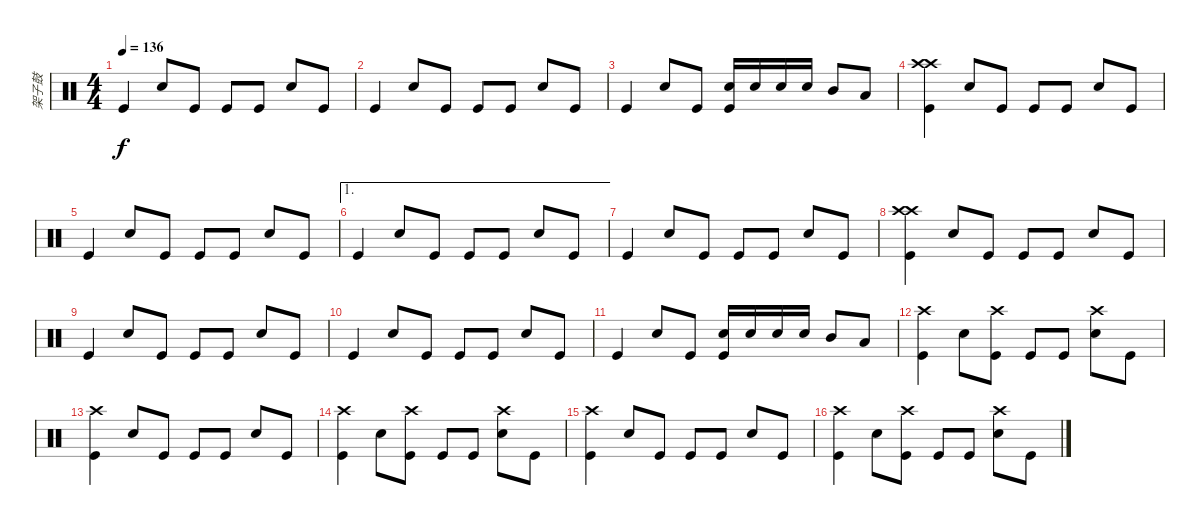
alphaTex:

\track ("架子鼓" "架子鼓") {instrument percussion}
\staff {score}
\articulation defaults
\ts (4 4)
\tempo 136
\clef neutral
\ks c "Kick (hit)".4{dy f} "Snare (hit) 2".8 "Kick (hit)".8 "Kick (hit)".8 "Kick (hit)".8 "Snare (hit) 2".8 "Kick (hit)".8
|
"Kick (hit)".4 "Snare (hit) 2".8 "Kick (hit)".8 "Kick (hit)".8 "Kick (hit)".8 "Snare (hit) 2".8 "Kick (hit)".8 |
"Kick (hit)".4 "Snare (hit) 2".8 "Kick (hit)".8 ("Snare (hit) 2" "Kick (hit)").16 "Snare (hit) 2".16 "Snare (hit) 2".16 "Snare (hit) 2".16 "Mid Tom (hit)".8 "Low Tom (hit)".8 |
("Crash high (hit)" "Crash high (hit)" "Kick (hit)").4 "Snare (hit) 2".8 "Kick (hit)".8 "Kick (hit)".8 "Kick (hit)".8 "Snare (hit) 2".8 "Kick (hit)".8 |
"Kick (hit)".4 "Snare (hit) 2".8 "Kick (hit)".8 "Kick (hit)".8 "Kick (hit)".8 "Snare (hit) 2".8 "Kick (hit)".8 |
\ae 1 "Kick (hit)".4 "Snare (hit) 2".8 "Kick (hit)".8 "Kick (hit)".8 "Kick (hit)".8 "Snare (hit) 2".8 "Kick (hit)".8
|
"Kick (hit)".4 "Snare (hit) 2".8 "Kick (hit)".8 "Kick (hit)".8 "Kick (hit)".8 "Snare (hit) 2".8 "Kick (hit)".8 |
("Crash high (hit)" "Crash high (hit)" "Kick (hit)").4 "Snare (hit) 2".8 "Kick (hit)".8 "Kick (hit)".8 "Kick (hit)".8 "Snare (hit) 2".8 "Kick (hit)".8 |
"Kick (hit)".4 "Snare (hit) 2".8 "Kick (hit)".8 "Kick (hit)".8 "Kick (hit)".8 "Snare (hit) 2".8 "Kick (hit)".8 |
"Kick (hit)".4 "Snare (hit) 2".8 "Kick (hit)".8 "Kick (hit)".8 "Kick (hit)".8 "Snare (hit) 2".8 "Kick (hit)".8 |
"Kick (hit)".4 "Snare (hit) 2".8 "Kick (hit)".8 ("Snare (hit) 2" "Kick (hit)").16 "Snare (hit) 2".16 "Snare (hit) 2".16 "Snare (hit) 2".16 "Mid Tom (hit)".8 "Low Tom (hit)".8 |
("Crash high (hit)" "Kick (hit)").4 "Snare (hit) 2".8 ("Crash high (hit)" "Kick (hit)").8 "Kick (hit)".8 "Kick (hit)".8 ("Crash high (hit)" "Snare (hit) 2").8 "Kick (hit)".8 |
("Crash high (hit)" "Kick (hit)").4 "Snare (hit) 2".8 "Kick (hit)".8 "Kick (hit)".8 "Kick (hit)".8 "Snare (hit) 2".8 "Kick (hit)".8 |
("Crash high (hit)" "Kick (hit)").4 "Snare (hit) 2".8 ("Crash high (hit)" "Kick (hit)").8 "Kick (hit)".8 "Kick (hit)".8 ("Crash high (hit)" "Snare (hit) 2").8 "Kick (hit)".8 |
("Crash high (hit)" "Kick (hit)").4 "Snare (hit) 2".8 "Kick (hit)".8 "Kick (hit)".8 "Kick (hit)".8 "Snare (hit) 2".8 "Kick (hit)".8 |
("Crash high (hit)" "Kick (hit)").4 "Snare (hit) 2".8 ("Crash high (hit)" "Kick (hit)").8 "Kick (hit)".8 "Kick (hit)".8 ("Crash high (hit)" "Snare (hit) 2").8 "Kick (hit)".8
